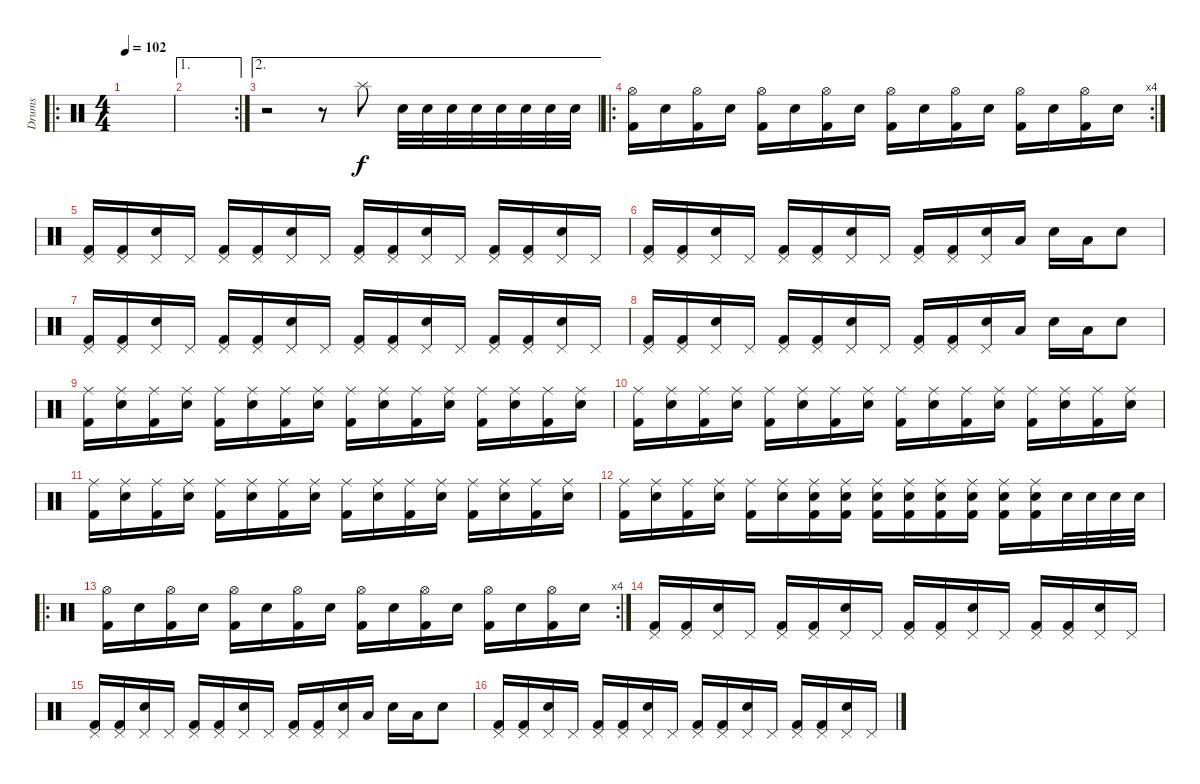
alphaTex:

\track ("Drums" "Drums") {instrument percussion}
\staff {score}
\articulation defaults
\ro
\ts (4 4)
\tempo 102
\clef neutral
\ks c
|
\ae 1
\rc 2
|
\ae 2
r.2 r.8 "Splash (hit)".8 "Electric Snare (hit)".32 "Electric Snare (hit)".32 "Electric Snare (hit)".32 "Electric Snare (hit)".32 "Electric Snare (hit)".32 "Electric Snare (hit)".32 "Electric Snare (hit)".32 "Electric Snare (hit)".32 |
\ro
\rc 4
("Hi-Hat (open)" "Kick (hit) 2").16 "Electric Snare (hit)".16 ("Hi-Hat (open)" "Kick (hit) 2").16 "Electric Snare (hit)".16 ("Hi-Hat (open)" "Kick (hit) 2").16 "Electric Snare (hit)".16 ("Hi-Hat (open)" "Kick (hit) 2").16 "Electric Snare (hit)".16 ("Hi-Hat (open)" "Kick (hit) 2").16 "Electric Snare (hit)".16 ("Hi-Hat (open)" "Kick (hit) 2").16 "Electric Snare (hit)".16 ("Hi-Hat (open)" "Kick (hit) 2").16 "Electric Snare (hit)".16 ("Hi-Hat (open)" "Kick (hit) 2").16 "Electric Snare (hit)".16 |
("Pedal Hi-Hat (hit)" "Kick (hit) 2").16 ("Pedal Hi-Hat (hit)" "Kick (hit) 2").16 ("Pedal Hi-Hat (hit)" "Electric Snare (hit)").16 "Pedal Hi-Hat (hit)".16 ("Pedal Hi-Hat (hit)" "Kick (hit) 2").16 ("Pedal Hi-Hat (hit)" "Kick (hit) 2").16 ("Pedal Hi-Hat (hit)" "Electric Snare (hit)").16 "Pedal Hi-Hat (hit)".16 ("Pedal Hi-Hat (hit)" "Kick (hit) 2").16 ("Pedal Hi-Hat (hit)" "Kick (hit) 2").16 ("Pedal Hi-Hat (hit)" "Electric Snare (hit)").16 "Pedal Hi-Hat (hit)".16 ("Pedal Hi-Hat (hit)" "Kick (hit) 2").16 ("Pedal Hi-Hat (hit)" "Kick (hit) 2").16 ("Pedal Hi-Hat (hit)" "Electric Snare (hit)").16 "Pedal Hi-Hat (hit)".16 |
("Pedal Hi-Hat (hit)" "Kick (hit) 2").16 ("Pedal Hi-Hat (hit)" "Kick (hit) 2").16 ("Pedal Hi-Hat (hit)" "Electric Snare (hit)").16 "Pedal Hi-Hat (hit)".16 ("Pedal Hi-Hat (hit)" "Kick (hit) 2").16 ("Pedal Hi-Hat (hit)" "Kick (hit) 2").16 ("Pedal Hi-Hat (hit)" "Electric Snare (hit)").16 "Pedal Hi-Hat (hit)".16 ("Pedal Hi-Hat (hit)" "Kick (hit) 2").16 ("Pedal Hi-Hat (hit)" "Kick (hit) 2").16 ("Pedal Hi-Hat (hit)" "Electric Snare (hit)").16 "Low Tom (hit)".16 "Electric Snare (hit)".16 "Low Tom (hit)".16 "Electric Snare (hit)".8 |
("Pedal Hi-Hat (hit)" "Kick (hit) 2").16 ("Pedal Hi-Hat (hit)" "Kick (hit) 2").16 ("Pedal Hi-Hat (hit)" "Electric Snare (hit)").16 "Pedal Hi-Hat (hit)".16 ("Pedal Hi-Hat (hit)" "Kick (hit) 2").16 ("Pedal Hi-Hat (hit)" "Kick (hit) 2").16 ("Pedal Hi-Hat (hit)" "Electric Snare (hit)").16 "Pedal Hi-Hat (hit)".16 ("Pedal Hi-Hat (hit)" "Kick (hit) 2").16 ("Pedal Hi-Hat (hit)" "Kick (hit) 2").16 ("Pedal Hi-Hat (hit)" "Electric Snare (hit)").16 "Pedal Hi-Hat (hit)".16 ("Pedal Hi-Hat (hit)" "Kick (hit) 2").16 ("Pedal Hi-Hat (hit)" "Kick (hit) 2").16 ("Pedal Hi-Hat (hit)" "Electric Snare (hit)").16 "Pedal Hi-Hat (hit)".16 |
("Pedal Hi-Hat (hit)" "Kick (hit) 2").16 ("Pedal Hi-Hat (hit)" "Kick (hit) 2").16 ("Pedal Hi-Hat (hit)" "Electric Snare (hit)").16 "Pedal Hi-Hat (hit)".16 ("Pedal Hi-Hat (hit)" "Kick (hit) 2").16 ("Pedal Hi-Hat (hit)" "Kick (hit) 2").16 ("Pedal Hi-Hat (hit)" "Electric Snare (hit)").16 "Pedal Hi-Hat (hit)".16 ("Pedal Hi-Hat (hit)" "Kick (hit) 2").16 ("Pedal Hi-Hat (hit)" "Kick (hit) 2").16 ("Pedal Hi-Hat (hit)" "Electric Snare (hit)").16 "Low Tom (hit)".16 "Electric Snare (hit)".16 "Low Tom (hit)".16 "Electric Snare (hit)".8 |
("Ride (middle)" "Kick (hit) 2").16 ("Ride (middle)" "Electric Snare (hit)").16 ("Ride (middle)" "Kick (hit) 2").16 ("Ride (middle)" "Electric Snare (hit)").16 ("Ride (middle)" "Kick (hit) 2").16 ("Ride (middle)" "Electric Snare (hit)").16 ("Ride (middle)" "Kick (hit) 2").16 ("Ride (middle)" "Electric Snare (hit)").16 ("Ride (middle)" "Kick (hit) 2").16 ("Ride (middle)" "Electric Snare (hit)").16 ("Ride (middle)" "Kick (hit) 2").16 ("Ride (middle)" "Electric Snare (hit)").16 ("Ride (middle)" "Kick (hit) 2").16 ("Ride (middle)" "Electric Snare (hit)").16 ("Ride (middle)" "Kick (hit) 2").16 ("Ride (middle)" "Electric Snare (hit)").16 |
("Ride (middle)" "Kick (hit) 2").16 ("Ride (middle)" "Electric Snare (hit)").16 ("Ride (middle)" "Kick (hit) 2").16 ("Ride (middle)" "Electric Snare (hit)").16 ("Ride (middle)" "Kick (hit) 2").16 ("Ride (middle)" "Electric Snare (hit)").16 ("Ride (middle)" "Kick (hit) 2").16 ("Ride (middle)" "Electric Snare (hit)").16 ("Ride (middle)" "Kick (hit) 2").16 ("Ride (middle)" "Electric Snare (hit)").16 ("Ride (middle)" "Kick (hit) 2").16 ("Ride (middle)" "Electric Snare (hit)").16 ("Ride (middle)" "Kick (hit) 2").16 ("Ride (middle)" "Electric Snare (hit)").16 ("Ride (middle)" "Kick (hit) 2").16 ("Ride (middle)" "Electric Snare (hit)").16 |
("Ride (middle)" "Kick (hit) 2").16 ("Ride (middle)" "Electric Snare (hit)").16 ("Ride (middle)" "Kick (hit) 2").16 ("Ride (middle)" "Electric Snare (hit)").16 ("Ride (middle)" "Kick (hit) 2").16 ("Ride (middle)" "Electric Snare (hit)").16 ("Ride (middle)" "Kick (hit) 2").16 ("Ride (middle)" "Electric Snare (hit)").16 ("Ride (middle)" "Kick (hit) 2").16 ("Ride (middle)" "Electric Snare (hit)").16 ("Ride (middle)" "Kick (hit) 2").16 ("Ride (middle)" "Electric Snare (hit)").16 ("Ride (middle)" "Kick (hit) 2").16 ("Ride (middle)" "Electric Snare (hit)").16 ("Ride (middle)" "Kick (hit) 2").16 ("Ride (middle)" "Electric Snare (hit)").16 |
("Ride (middle)" "Kick (hit) 2").16 ("Ride (middle)" "Electric Snare (hit)").16 ("Ride (middle)" "Kick (hit) 2").16 ("Ride (middle)" "Electric Snare (hit)").16 ("Ride (middle)" "Kick (hit) 2").16 ("Ride (middle)" "Electric Snare (hit)").16 ("Ride (middle)" "Electric Snare (hit)" "Kick (hit) 2").16 ("Ride (middle)" "Electric Snare (hit)" "Kick (hit) 2").16 ("Ride (middle)" "Electric Snare (hit)" "Kick (hit) 2").16 ("Ride (middle)" "Electric Snare (hit)" "Kick (hit) 2").16 ("Ride (middle)" "Electric Snare (hit)" "Kick (hit) 2").16 ("Ride (middle)" "Electric Snare (hit)" "Kick (hit) 2").16 ("Ride (middle)" "Electric Snare (hit)" "Kick (hit) 2").16 ("Ride (middle)" "Electric Snare (hit)" "Kick (hit) 2").16 "Electric Snare (hit)".32 "Electric Snare (hit)".32 "Electric Snare (hit)".32 "Electric Snare (hit)".32 |
\ro
\rc 4
("Hi-Hat (open)" "Kick (hit) 2").16 "Electric Snare (hit)".16 ("Hi-Hat (open)" "Kick (hit) 2").16 "Electric Snare (hit)".16 ("Hi-Hat (open)" "Kick (hit) 2").16 "Electric Snare (hit)".16 ("Hi-Hat (open)" "Kick (hit) 2").16 "Electric Snare (hit)".16 ("Hi-Hat (open)" "Kick (hit) 2").16 "Electric Snare (hit)".16 ("Hi-Hat (open)" "Kick (hit) 2").16 "Electric Snare (hit)".16 ("Hi-Hat (open)" "Kick (hit) 2").16 "Electric Snare (hit)".16 ("Hi-Hat (open)" "Kick (hit) 2").16 "Electric Snare (hit)".16 |
("Pedal Hi-Hat (hit)" "Kick (hit) 2").16 ("Pedal Hi-Hat (hit)" "Kick (hit) 2").16 ("Pedal Hi-Hat (hit)" "Electric Snare (hit)").16 "Pedal Hi-Hat (hit)".16 ("Pedal Hi-Hat (hit)" "Kick (hit) 2").16 ("Pedal Hi-Hat (hit)" "Kick (hit) 2").16 ("Pedal Hi-Hat (hit)" "Electric Snare (hit)").16 "Pedal Hi-Hat (hit)".16 ("Pedal Hi-Hat (hit)" "Kick (hit) 2").16 ("Pedal Hi-Hat (hit)" "Kick (hit) 2").16 ("Pedal Hi-Hat (hit)" "Electric Snare (hit)").16 "Pedal Hi-Hat (hit)".16 ("Pedal Hi-Hat (hit)" "Kick (hit) 2").16 ("Pedal Hi-Hat (hit)" "Kick (hit) 2").16 ("Pedal Hi-Hat (hit)" "Electric Snare (hit)").16 "Pedal Hi-Hat (hit)".16 |
("Pedal Hi-Hat (hit)" "Kick (hit) 2").16 ("Pedal Hi-Hat (hit)" "Kick (hit) 2").16 ("Pedal Hi-Hat (hit)" "Electric Snare (hit)").16 "Pedal Hi-Hat (hit)".16 ("Pedal Hi-Hat (hit)" "Kick (hit) 2").16 ("Pedal Hi-Hat (hit)" "Kick (hit) 2").16 ("Pedal Hi-Hat (hit)" "Electric Snare (hit)").16 "Pedal Hi-Hat (hit)".16 ("Pedal Hi-Hat (hit)" "Kick (hit) 2").16 ("Pedal Hi-Hat (hit)" "Kick (hit) 2").16 ("Pedal Hi-Hat (hit)" "Electric Snare (hit)").16 "Low Tom (hit)".16 "Electric Snare (hit)".16 "Low Tom (hit)".16 "Electric Snare (hit)".8 |
("Pedal Hi-Hat (hit)" "Kick (hit) 2").16 ("Pedal Hi-Hat (hit)" "Kick (hit) 2").16 ("Pedal Hi-Hat (hit)" "Electric Snare (hit)").16 "Pedal Hi-Hat (hit)".16 ("Pedal Hi-Hat (hit)" "Kick (hit) 2").16 ("Pedal Hi-Hat (hit)" "Kick (hit) 2").16 ("Pedal Hi-Hat (hit)" "Electric Snare (hit)").16 "Pedal Hi-Hat (hit)".16 ("Pedal Hi-Hat (hit)" "Kick (hit) 2").16 ("Pedal Hi-Hat (hit)" "Kick (hit) 2").16 ("Pedal Hi-Hat (hit)" "Electric Snare (hit)").16 "Pedal Hi-Hat (hit)".16 ("Pedal Hi-Hat (hit)" "Kick (hit) 2").16 ("Pedal Hi-Hat (hit)" "Kick (hit) 2").16 ("Pedal Hi-Hat (hit)" "Electric Snare (hit)").16 "Pedal Hi-Hat (hit)".16
